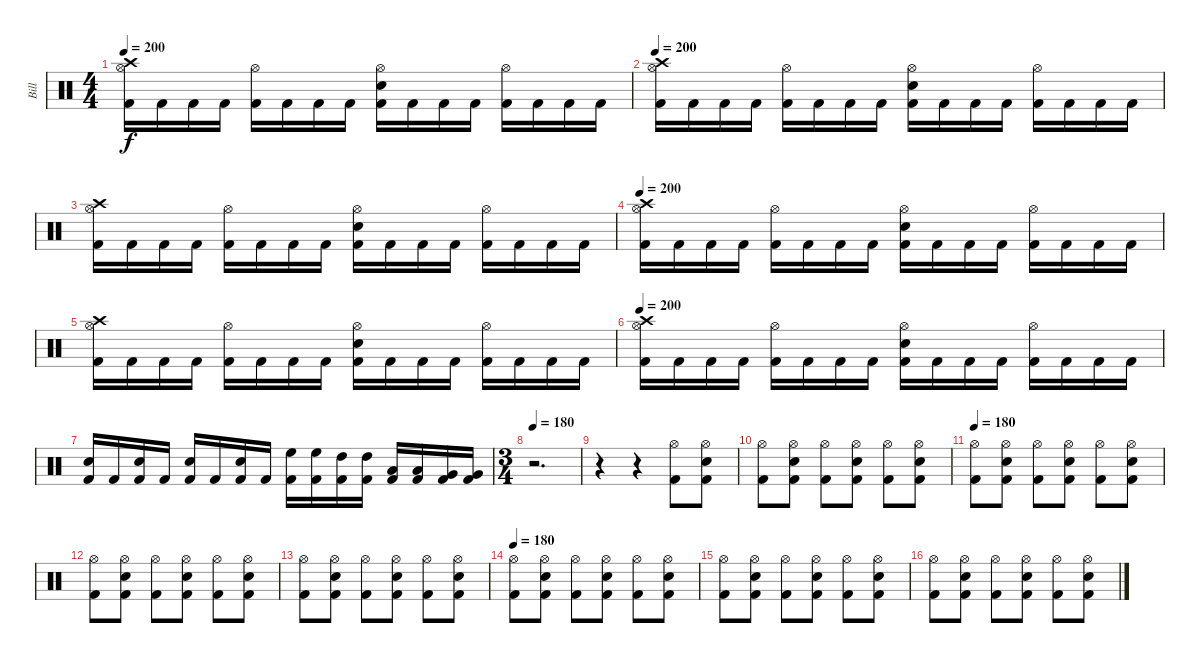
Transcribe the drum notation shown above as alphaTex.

\track ("Bill" "Bill") {instrument percussion}
\staff {score}
\articulation defaults
\ts (4 4)
\tempo 200
\clef neutral
\ks c
("Hi-Hat (open)" "Crash high (hit)" "Kick (hit) 2").16{dy f} "Kick (hit) 2".16 "Kick (hit) 2".16 "Kick (hit) 2".16 ("Hi-Hat (open)" "Kick (hit) 2").16 "Kick (hit) 2".16 "Kick (hit) 2".16 "Kick (hit) 2".16 ("Hi-Hat (open)" "Snare (hit) 2" "Kick (hit) 2").16 "Kick (hit) 2".16 "Kick (hit) 2".16 "Kick (hit) 2".16 ("Hi-Hat (open)" "Kick (hit) 2").16 "Kick (hit) 2".16 "Kick (hit) 2".16 "Kick (hit) 2".16 |
\tempo 200
("Hi-Hat (open)" "Crash high (hit)" "Kick (hit) 2").16 "Kick (hit) 2".16 "Kick (hit) 2".16 "Kick (hit) 2".16 ("Hi-Hat (open)" "Kick (hit) 2").16 "Kick (hit) 2".16 "Kick (hit) 2".16 "Kick (hit) 2".16 ("Hi-Hat (open)" "Snare (hit) 2" "Kick (hit) 2").16 "Kick (hit) 2".16 "Kick (hit) 2".16 "Kick (hit) 2".16 ("Hi-Hat (open)" "Kick (hit) 2").16 "Kick (hit) 2".16 "Kick (hit) 2".16 "Kick (hit) 2".16 |
("Hi-Hat (open)" "Crash high (hit)" "Kick (hit) 2").16 "Kick (hit) 2".16 "Kick (hit) 2".16 "Kick (hit) 2".16 ("Hi-Hat (open)" "Kick (hit) 2").16 "Kick (hit) 2".16 "Kick (hit) 2".16 "Kick (hit) 2".16 ("Hi-Hat (open)" "Snare (hit) 2" "Kick (hit) 2").16 "Kick (hit) 2".16 "Kick (hit) 2".16 "Kick (hit) 2".16 ("Hi-Hat (open)" "Kick (hit) 2").16 "Kick (hit) 2".16 "Kick (hit) 2".16 "Kick (hit) 2".16 |
\tempo 200
("Hi-Hat (open)" "Crash high (hit)" "Kick (hit) 2").16 "Kick (hit) 2".16 "Kick (hit) 2".16 "Kick (hit) 2".16 ("Hi-Hat (open)" "Kick (hit) 2").16 "Kick (hit) 2".16 "Kick (hit) 2".16 "Kick (hit) 2".16 ("Hi-Hat (open)" "Snare (hit) 2" "Kick (hit) 2").16 "Kick (hit) 2".16 "Kick (hit) 2".16 "Kick (hit) 2".16 ("Hi-Hat (open)" "Kick (hit) 2").16 "Kick (hit) 2".16 "Kick (hit) 2".16 "Kick (hit) 2".16 |
("Hi-Hat (open)" "Crash high (hit)" "Kick (hit) 2").16 "Kick (hit) 2".16 "Kick (hit) 2".16 "Kick (hit) 2".16 ("Hi-Hat (open)" "Kick (hit) 2").16 "Kick (hit) 2".16 "Kick (hit) 2".16 "Kick (hit) 2".16 ("Hi-Hat (open)" "Snare (hit) 2" "Kick (hit) 2").16 "Kick (hit) 2".16 "Kick (hit) 2".16 "Kick (hit) 2".16 ("Hi-Hat (open)" "Kick (hit) 2").16 "Kick (hit) 2".16 "Kick (hit) 2".16 "Kick (hit) 2".16 |
\tempo 200
("Hi-Hat (open)" "Crash high (hit)" "Kick (hit) 2").16 "Kick (hit) 2".16 "Kick (hit) 2".16 "Kick (hit) 2".16 ("Hi-Hat (open)" "Kick (hit) 2").16 "Kick (hit) 2".16 "Kick (hit) 2".16 "Kick (hit) 2".16 ("Hi-Hat (open)" "Snare (hit) 2" "Kick (hit) 2").16 "Kick (hit) 2".16 "Kick (hit) 2".16 "Kick (hit) 2".16 ("Hi-Hat (open)" "Kick (hit) 2").16 "Kick (hit) 2".16 "Kick (hit) 2".16 "Kick (hit) 2".16 |
("Snare (hit) 2" "Kick (hit) 2").16 "Kick (hit) 2".16 ("Snare (hit) 2" "Kick (hit) 2").16 "Kick (hit) 2".16 ("Snare (hit) 2" "Kick (hit) 2").16 "Kick (hit) 2".16 ("Snare (hit) 2" "Kick (hit) 2").16 "Kick (hit) 2".16 ("High Floor Tom (hit)" "Kick (hit) 2").16 ("High Floor Tom (hit)" "Kick (hit) 2").16 ("High Tom (hit)" "Kick (hit) 2").16 ("High Tom (hit)" "Kick (hit) 2").16 ("Low Tom (hit)" "Kick (hit) 2").16 ("Low Tom (hit)" "Kick (hit) 2").16 ("Very Low Tom (hit)" "Kick (hit) 2").16 ("Very Low Tom (hit)" "Kick (hit) 2").16 |
\ts (3 4)
\tempo 190
\tempo 180
r.2{d} |
r.4 r.4 ("Hi-Hat (open)" "Kick (hit) 2").8 ("Hi-Hat (open)" "Snare (hit) 2" "Kick (hit) 2").8 |
("Hi-Hat (open)" "Kick (hit) 2").8 ("Hi-Hat (open)" "Snare (hit) 2" "Kick (hit) 2").8 ("Hi-Hat (open)" "Kick (hit) 2").8 ("Hi-Hat (open)" "Snare (hit) 2" "Kick (hit) 2").8 ("Hi-Hat (open)" "Kick (hit) 2").8 ("Hi-Hat (open)" "Snare (hit) 2" "Kick (hit) 2").8 |
\tempo 190
\tempo 180
("Hi-Hat (open)" "Kick (hit) 2").8 ("Hi-Hat (open)" "Snare (hit) 2" "Kick (hit) 2").8 ("Hi-Hat (open)" "Kick (hit) 2").8 ("Hi-Hat (open)" "Snare (hit) 2" "Kick (hit) 2").8 ("Hi-Hat (open)" "Kick (hit) 2").8 ("Hi-Hat (open)" "Snare (hit) 2" "Kick (hit) 2").8 |
("Hi-Hat (open)" "Kick (hit) 2").8 ("Hi-Hat (open)" "Snare (hit) 2" "Kick (hit) 2").8 ("Hi-Hat (open)" "Kick (hit) 2").8 ("Hi-Hat (open)" "Snare (hit) 2" "Kick (hit) 2").8 ("Hi-Hat (open)" "Kick (hit) 2").8 ("Hi-Hat (open)" "Snare (hit) 2" "Kick (hit) 2").8 |
("Hi-Hat (open)" "Kick (hit) 2").8 ("Hi-Hat (open)" "Snare (hit) 2" "Kick (hit) 2").8 ("Hi-Hat (open)" "Kick (hit) 2").8 ("Hi-Hat (open)" "Snare (hit) 2" "Kick (hit) 2").8 ("Hi-Hat (open)" "Kick (hit) 2").8 ("Hi-Hat (open)" "Snare (hit) 2" "Kick (hit) 2").8 |
\tempo 190
\tempo 180
("Hi-Hat (open)" "Kick (hit) 2").8 ("Hi-Hat (open)" "Snare (hit) 2" "Kick (hit) 2").8 ("Hi-Hat (open)" "Kick (hit) 2").8 ("Hi-Hat (open)" "Snare (hit) 2" "Kick (hit) 2").8 ("Hi-Hat (open)" "Kick (hit) 2").8 ("Hi-Hat (open)" "Snare (hit) 2" "Kick (hit) 2").8 |
("Hi-Hat (open)" "Kick (hit) 2").8 ("Hi-Hat (open)" "Snare (hit) 2" "Kick (hit) 2").8 ("Hi-Hat (open)" "Kick (hit) 2").8 ("Hi-Hat (open)" "Snare (hit) 2" "Kick (hit) 2").8 ("Hi-Hat (open)" "Kick (hit) 2").8 ("Hi-Hat (open)" "Snare (hit) 2" "Kick (hit) 2").8 |
("Hi-Hat (open)" "Kick (hit) 2").8 ("Hi-Hat (open)" "Snare (hit) 2" "Kick (hit) 2").8 ("Hi-Hat (open)" "Kick (hit) 2").8 ("Hi-Hat (open)" "Snare (hit) 2" "Kick (hit) 2").8 ("Hi-Hat (open)" "Kick (hit) 2").8 ("Hi-Hat (open)" "Snare (hit) 2" "Kick (hit) 2").8
